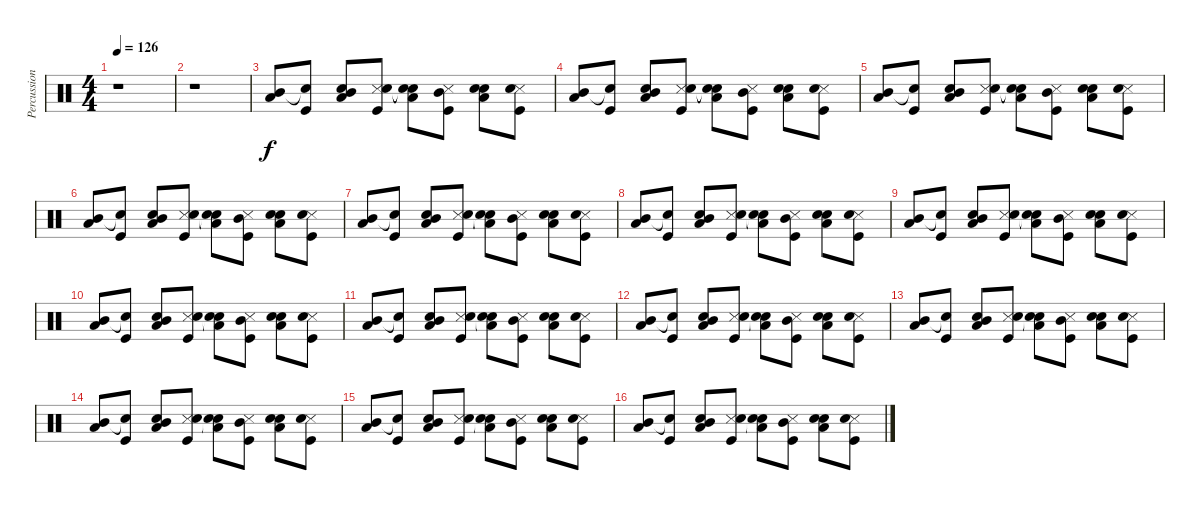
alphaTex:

\track ("Percussions" "Percussion") {instrument percussion}
\staff {score}
\articulation defaults
\ts (4 4)
\tempo 126
\clef neutral
\ks c
r.1{dy f} |
r.1 |
("Mid Tom (hit)" "Low Floor Tom (hit)").8 ("Snare (hit)"{t} "Kick (hit)").8 ("Snare (hit) 2" "Mid Tom (hit)" "Low Floor Tom (hit)").8 ("Snare (side stick) 3" "Electric Snare (hit)" "Kick (hit)").8 ("Snare (hit)"{t} "Snare (hit)"{t} "Low Floor Tom (hit)").8 ("Snare (side stick) 3" "Mid Tom (hit)" "Kick (hit)").8 ("Electric Snare (hit)" "Snare (hit) 2" "Low Floor Tom (hit)").8 ("Snare (side stick) 3" "Snare (hit) 2" "Kick (hit)").8 |
("Mid Tom (hit)" "Low Floor Tom (hit)").8 ("Snare (hit)"{t} "Kick (hit)").8 ("Snare (hit) 2" "Mid Tom (hit)" "Low Floor Tom (hit)").8 ("Snare (side stick) 3" "Electric Snare (hit)" "Kick (hit)").8 ("Snare (hit)"{t} "Snare (hit)"{t} "Low Floor Tom (hit)").8 ("Snare (side stick) 3" "Mid Tom (hit)" "Kick (hit)").8 ("Electric Snare (hit)" "Snare (hit) 2" "Low Floor Tom (hit)").8 ("Snare (side stick) 3" "Snare (hit) 2" "Kick (hit)").8 |
("Mid Tom (hit)" "Low Floor Tom (hit)").8 ("Snare (hit)"{t} "Kick (hit)").8 ("Snare (hit) 2" "Mid Tom (hit)" "Low Floor Tom (hit)").8 ("Snare (side stick) 3" "Electric Snare (hit)" "Kick (hit)").8 ("Snare (hit)"{t} "Snare (hit)"{t} "Low Floor Tom (hit)").8 ("Snare (side stick) 3" "Mid Tom (hit)" "Kick (hit)").8 ("Electric Snare (hit)" "Snare (hit) 2" "Low Floor Tom (hit)").8 ("Snare (side stick) 3" "Snare (hit) 2" "Kick (hit)").8 |
("Mid Tom (hit)" "Low Floor Tom (hit)").8 ("Snare (hit)"{t} "Kick (hit)").8 ("Snare (hit) 2" "Mid Tom (hit)" "Low Floor Tom (hit)").8 ("Snare (side stick) 3" "Electric Snare (hit)" "Kick (hit)").8 ("Snare (hit)"{t} "Snare (hit)"{t} "Low Floor Tom (hit)").8 ("Snare (side stick) 3" "Mid Tom (hit)" "Kick (hit)").8 ("Electric Snare (hit)" "Snare (hit) 2" "Low Floor Tom (hit)").8 ("Snare (side stick) 3" "Snare (hit) 2" "Kick (hit)").8 |
("Mid Tom (hit)" "Low Floor Tom (hit)").8 ("Snare (hit)"{t} "Kick (hit)").8 ("Snare (hit) 2" "Mid Tom (hit)" "Low Floor Tom (hit)").8 ("Snare (side stick) 3" "Electric Snare (hit)" "Kick (hit)").8 ("Snare (hit)"{t} "Snare (hit)"{t} "Low Floor Tom (hit)").8 ("Snare (side stick) 3" "Mid Tom (hit)" "Kick (hit)").8 ("Electric Snare (hit)" "Snare (hit) 2" "Low Floor Tom (hit)").8 ("Snare (side stick) 3" "Snare (hit) 2" "Kick (hit)").8 |
("Mid Tom (hit)" "Low Floor Tom (hit)").8 ("Snare (hit)"{t} "Kick (hit)").8 ("Snare (hit) 2" "Mid Tom (hit)" "Low Floor Tom (hit)").8 ("Snare (side stick) 3" "Electric Snare (hit)" "Kick (hit)").8 ("Snare (hit)"{t} "Snare (hit)"{t} "Low Floor Tom (hit)").8 ("Snare (side stick) 3" "Mid Tom (hit)" "Kick (hit)").8 ("Electric Snare (hit)" "Snare (hit) 2" "Low Floor Tom (hit)").8 ("Snare (side stick) 3" "Snare (hit) 2" "Kick (hit)").8 |
("Mid Tom (hit)" "Low Floor Tom (hit)").8 ("Snare (hit)"{t} "Kick (hit)").8 ("Snare (hit) 2" "Mid Tom (hit)" "Low Floor Tom (hit)").8 ("Snare (side stick) 3" "Electric Snare (hit)" "Kick (hit)").8 ("Snare (hit)"{t} "Snare (hit)"{t} "Low Floor Tom (hit)").8 ("Snare (side stick) 3" "Mid Tom (hit)" "Kick (hit)").8 ("Electric Snare (hit)" "Snare (hit) 2" "Low Floor Tom (hit)").8 ("Snare (side stick) 3" "Snare (hit) 2" "Kick (hit)").8 |
("Mid Tom (hit)" "Low Floor Tom (hit)").8 ("Snare (hit)"{t} "Kick (hit)").8 ("Snare (hit) 2" "Mid Tom (hit)" "Low Floor Tom (hit)").8 ("Snare (side stick) 3" "Electric Snare (hit)" "Kick (hit)").8 ("Snare (hit)"{t} "Snare (hit)"{t} "Low Floor Tom (hit)").8 ("Snare (side stick) 3" "Mid Tom (hit)" "Kick (hit)").8 ("Electric Snare (hit)" "Snare (hit) 2" "Low Floor Tom (hit)").8 ("Snare (side stick) 3" "Snare (hit) 2" "Kick (hit)").8 |
("Mid Tom (hit)" "Low Floor Tom (hit)").8 ("Snare (hit)"{t} "Kick (hit)").8 ("Snare (hit) 2" "Mid Tom (hit)" "Low Floor Tom (hit)").8 ("Snare (side stick) 3" "Electric Snare (hit)" "Kick (hit)").8 ("Snare (hit)"{t} "Snare (hit)"{t} "Low Floor Tom (hit)").8 ("Snare (side stick) 3" "Mid Tom (hit)" "Kick (hit)").8 ("Electric Snare (hit)" "Snare (hit) 2" "Low Floor Tom (hit)").8 ("Snare (side stick) 3" "Snare (hit) 2" "Kick (hit)").8 |
("Mid Tom (hit)" "Low Floor Tom (hit)").8 ("Snare (hit)"{t} "Kick (hit)").8 ("Snare (hit) 2" "Mid Tom (hit)" "Low Floor Tom (hit)").8 ("Snare (side stick) 3" "Electric Snare (hit)" "Kick (hit)").8 ("Snare (hit)"{t} "Snare (hit)"{t} "Low Floor Tom (hit)").8 ("Snare (side stick) 3" "Mid Tom (hit)" "Kick (hit)").8 ("Electric Snare (hit)" "Snare (hit) 2" "Low Floor Tom (hit)").8 ("Snare (side stick) 3" "Snare (hit) 2" "Kick (hit)").8 |
("Mid Tom (hit)" "Low Floor Tom (hit)").8 ("Snare (hit)"{t} "Kick (hit)").8 ("Snare (hit) 2" "Mid Tom (hit)" "Low Floor Tom (hit)").8 ("Snare (side stick) 3" "Electric Snare (hit)" "Kick (hit)").8 ("Snare (hit)"{t} "Snare (hit)"{t} "Low Floor Tom (hit)").8 ("Snare (side stick) 3" "Mid Tom (hit)" "Kick (hit)").8 ("Electric Snare (hit)" "Snare (hit) 2" "Low Floor Tom (hit)").8 ("Snare (side stick) 3" "Snare (hit) 2" "Kick (hit)").8 |
("Mid Tom (hit)" "Low Floor Tom (hit)").8 ("Snare (hit)"{t} "Kick (hit)").8 ("Snare (hit) 2" "Mid Tom (hit)" "Low Floor Tom (hit)").8 ("Snare (side stick) 3" "Electric Snare (hit)" "Kick (hit)").8 ("Snare (hit)"{t} "Snare (hit)"{t} "Low Floor Tom (hit)").8 ("Snare (side stick) 3" "Mid Tom (hit)" "Kick (hit)").8 ("Electric Snare (hit)" "Snare (hit) 2" "Low Floor Tom (hit)").8 ("Snare (side stick) 3" "Snare (hit) 2" "Kick (hit)").8 |
("Mid Tom (hit)" "Low Floor Tom (hit)").8 ("Snare (hit)"{t} "Kick (hit)").8 ("Snare (hit) 2" "Mid Tom (hit)" "Low Floor Tom (hit)").8 ("Snare (side stick) 3" "Electric Snare (hit)" "Kick (hit)").8 ("Snare (hit)"{t} "Snare (hit)"{t} "Low Floor Tom (hit)").8 ("Snare (side stick) 3" "Mid Tom (hit)" "Kick (hit)").8 ("Electric Snare (hit)" "Snare (hit) 2" "Low Floor Tom (hit)").8 ("Snare (side stick) 3" "Snare (hit) 2" "Kick (hit)").8 |
("Mid Tom (hit)" "Low Floor Tom (hit)").8 ("Snare (hit)"{t} "Kick (hit)").8 ("Snare (hit) 2" "Mid Tom (hit)" "Low Floor Tom (hit)").8 ("Snare (side stick) 3" "Electric Snare (hit)" "Kick (hit)").8 ("Snare (hit)"{t} "Snare (hit)"{t} "Low Floor Tom (hit)").8 ("Snare (side stick) 3" "Mid Tom (hit)" "Kick (hit)").8 ("Electric Snare (hit)" "Snare (hit) 2" "Low Floor Tom (hit)").8 ("Snare (side stick) 3" "Snare (hit) 2" "Kick (hit)").8
